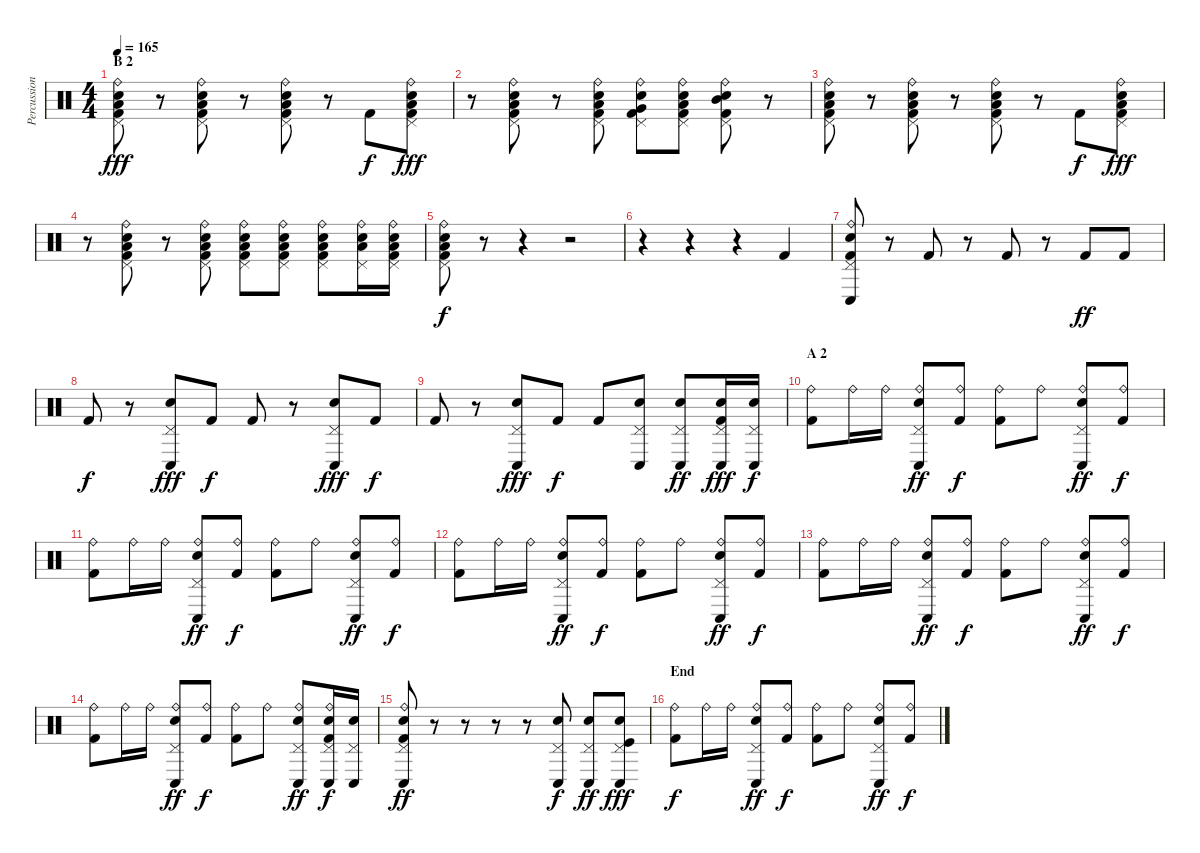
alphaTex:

\track ("Percussion" "Percussion") {instrument percussion}
\staff {score}
\articulation defaults
\ts (4 4)
\section ("" "B 2")
\tempo 165
\clef neutral
\ks c
("Ride (bell)" "Pedal Hi-Hat (hit)" "Low Floor Tom (hit)" "Electric Snare (hit)" "Kick (hit) 2").8{dy fff} r.8 ("Ride (bell)" "Pedal Hi-Hat (hit)" "Low Floor Tom (hit)" "Electric Snare (hit)" "Kick (hit) 2").8 r.8 ("Ride (bell)" "Pedal Hi-Hat (hit)" "Low Floor Tom (hit)" "Electric Snare (hit)" "Kick (hit) 2").8 r.8 "Kick (hit) 2".8{dy f} ("Ride (bell)" "Pedal Hi-Hat (hit)" "Low Floor Tom (hit)" "Electric Snare (hit)" "Kick (hit) 2").8{dy fff} |
r.8 ("Ride (bell)" "Pedal Hi-Hat (hit)" "Low Floor Tom (hit)" "Electric Snare (hit)" "Kick (hit) 2").8 r.8 ("Ride (bell)" "Pedal Hi-Hat (hit)" "Low Floor Tom (hit)" "Electric Snare (hit)" "Kick (hit) 2").8 ("Ride (bell)" "Pedal Hi-Hat (hit)" "Very Low Tom (hit)" "Electric Snare (hit)" "Kick (hit) 2").8 ("Ride (bell)" "Pedal Hi-Hat (hit)" "Low Tom (hit)" "Electric Snare (hit)" "Kick (hit) 2").8 ("Ride (bell)" "Pedal Hi-Hat (hit)" "Mid Tom (hit)" "Electric Snare (hit)" "Kick (hit) 2").8 r.8 |
("Ride (bell)" "Pedal Hi-Hat (hit)" "Low Floor Tom (hit)" "Electric Snare (hit)" "Kick (hit) 2").8 r.8 ("Ride (bell)" "Pedal Hi-Hat (hit)" "Low Floor Tom (hit)" "Electric Snare (hit)" "Kick (hit) 2").8 r.8 ("Ride (bell)" "Pedal Hi-Hat (hit)" "Low Floor Tom (hit)" "Electric Snare (hit)" "Kick (hit) 2").8 r.8 "Kick (hit) 2".8{dy f} ("Ride (bell)" "Pedal Hi-Hat (hit)" "Low Floor Tom (hit)" "Electric Snare (hit)" "Kick (hit) 2").8{dy fff} |
r.8 ("Ride (bell)" "Pedal Hi-Hat (hit)" "Low Floor Tom (hit)" "Electric Snare (hit)" "Kick (hit) 2").8 r.8 ("Ride (bell)" "Pedal Hi-Hat (hit)" "Low Floor Tom (hit)" "Electric Snare (hit)" "Kick (hit) 2").8 ("Ride (bell)" "Pedal Hi-Hat (hit)" "Low Floor Tom (hit)" "Electric Snare (hit)" "Kick (hit) 2").8 ("Ride (bell)" "Pedal Hi-Hat (hit)" "Low Floor Tom (hit)" "Electric Snare (hit)" "Kick (hit) 2").8 ("Ride (bell)" "Pedal Hi-Hat (hit)" "Low Floor Tom (hit)" "Electric Snare (hit)" "Kick (hit) 2").8 ("Ride (bell)" "Pedal Hi-Hat (hit)" "Low Floor Tom (hit)" "Electric Snare (hit)").16 ("Ride (bell)" "Pedal Hi-Hat (hit)" "Low Floor Tom (hit)" "Electric Snare (hit)" "Kick (hit) 2").16 |
("Ride (bell)" "Pedal Hi-Hat (hit)" "Low Floor Tom (hit)" "Electric Snare (hit)" "Kick (hit) 2").8{dy f} r.8 r.4 r.2 |
r.4 r.4 r.4 "Kick (hit) 2".4 |
("Ride (bell)" "Pedal Hi-Hat (hit)" "Conga low (hit)" "Electric Snare (hit)" "Kick (hit) 2").8 r.8 "Kick (hit) 2".8 r.8 "Kick (hit) 2".8 r.8 "Kick (hit) 2".8{dy ff} "Kick (hit) 2".8 |
"Kick (hit) 2".8{dy f} r.8 ("Pedal Hi-Hat (hit)" "Conga low (hit)" "Electric Snare (hit)").8{dy fff} "Kick (hit) 2".8{dy f} "Kick (hit) 2".8 r.8 ("Pedal Hi-Hat (hit)" "Conga low (hit)" "Electric Snare (hit)").8{dy fff} "Kick (hit) 2".8{dy f} |
"Kick (hit) 2".8 r.8 ("Pedal Hi-Hat (hit)" "Conga low (hit)" "Electric Snare (hit)").8{dy fff} "Kick (hit) 2".8{dy f} "Kick (hit) 2".8 ("Pedal Hi-Hat (hit)" "Conga low (hit)" "Electric Snare (hit)").8 ("Pedal Hi-Hat (hit)" "Conga low (hit)" "Electric Snare (hit)").8{dy ff} ("Pedal Hi-Hat (hit)" "Conga low (hit)" "Electric Snare (hit)" "Kick (hit) 2").16{dy fff} ("Pedal Hi-Hat (hit)" "Conga low (hit)" "Electric Snare (hit)").16{dy f} |
\section ("" "A 2")
("Ride (bell)" "Kick (hit) 2").8 "Ride (bell)".16 "Ride (bell)".16 ("Ride (bell)" "Pedal Hi-Hat (hit)" "Conga low (hit)" "Electric Snare (hit)").8{dy ff} ("Ride (bell)" "Kick (hit) 2").8{dy f} ("Ride (bell)" "Kick (hit) 2").8 "Ride (bell)".8 ("Ride (bell)" "Pedal Hi-Hat (hit)" "Conga low (hit)" "Electric Snare (hit)").8{dy ff} ("Ride (bell)" "Kick (hit) 2").8{dy f} |
("Ride (bell)" "Kick (hit) 2").8 "Ride (bell)".16 "Ride (bell)".16 ("Ride (bell)" "Pedal Hi-Hat (hit)" "Conga low (hit)" "Electric Snare (hit)").8{dy ff} ("Ride (bell)" "Kick (hit) 2").8{dy f} ("Ride (bell)" "Kick (hit) 2").8 "Ride (bell)".8 ("Ride (bell)" "Pedal Hi-Hat (hit)" "Conga low (hit)" "Electric Snare (hit)").8{dy ff} ("Ride (bell)" "Kick (hit) 2").8{dy f} |
("Ride (bell)" "Kick (hit) 2").8 "Ride (bell)".16 "Ride (bell)".16 ("Ride (bell)" "Pedal Hi-Hat (hit)" "Conga low (hit)" "Electric Snare (hit)").8{dy ff} ("Ride (bell)" "Kick (hit) 2").8{dy f} ("Ride (bell)" "Kick (hit) 2").8 "Ride (bell)".8 ("Ride (bell)" "Pedal Hi-Hat (hit)" "Conga low (hit)" "Electric Snare (hit)").8{dy ff} ("Ride (bell)" "Kick (hit) 2").8{dy f} |
("Ride (bell)" "Kick (hit) 2").8 "Ride (bell)".16 "Ride (bell)".16 ("Ride (bell)" "Pedal Hi-Hat (hit)" "Conga low (hit)" "Electric Snare (hit)").8{dy ff} ("Ride (bell)" "Kick (hit) 2").8{dy f} ("Ride (bell)" "Kick (hit) 2").8 "Ride (bell)".8 ("Ride (bell)" "Pedal Hi-Hat (hit)" "Conga low (hit)" "Electric Snare (hit)").8{dy ff} ("Ride (bell)" "Kick (hit) 2").8{dy f} |
("Ride (bell)" "Kick (hit) 2").8 "Ride (bell)".16 "Ride (bell)".16 ("Ride (bell)" "Pedal Hi-Hat (hit)" "Conga low (hit)" "Electric Snare (hit)").8{dy ff} ("Ride (bell)" "Kick (hit) 2").8{dy f} ("Ride (bell)" "Kick (hit) 2").8 "Ride (bell)".8 ("Ride (bell)" "Pedal Hi-Hat (hit)" "Conga low (hit)" "Electric Snare (hit)").8{dy ff} ("Ride (bell)" "Pedal Hi-Hat (hit)" "Conga low (hit)" "Electric Snare (hit)" "Kick (hit) 2").16{dy f} ("Pedal Hi-Hat (hit)" "Conga low (hit)" "Electric Snare (hit)").16 |
("Ride (bell)" "Pedal Hi-Hat (hit)" "Conga low (hit)" "Electric Snare (hit)" "Kick (hit) 2").8{dy ff} r.8 r.8 r.8 r.8 ("Pedal Hi-Hat (hit)" "Conga low (hit)" "Electric Snare (hit)").8{dy f} ("Pedal Hi-Hat (hit)" "Conga low (hit)" "Electric Snare (hit)").8{dy ff} ("Pedal Hi-Hat (hit)" "Conga low (hit)" "Electric Snare (hit)" "Kick (hit)").8{dy fff} |
\section ("" "End")
("Ride (bell)" "Kick (hit) 2").8{dy f} "Ride (bell)".16 "Ride (bell)".16 ("Ride (bell)" "Pedal Hi-Hat (hit)" "Conga low (hit)" "Electric Snare (hit)").8{dy ff} ("Ride (bell)" "Kick (hit) 2").8{dy f} ("Ride (bell)" "Kick (hit) 2").8 "Ride (bell)".8 ("Ride (bell)" "Pedal Hi-Hat (hit)" "Conga low (hit)" "Electric Snare (hit)").8{dy ff} ("Ride (bell)" "Kick (hit) 2").8{dy f}
